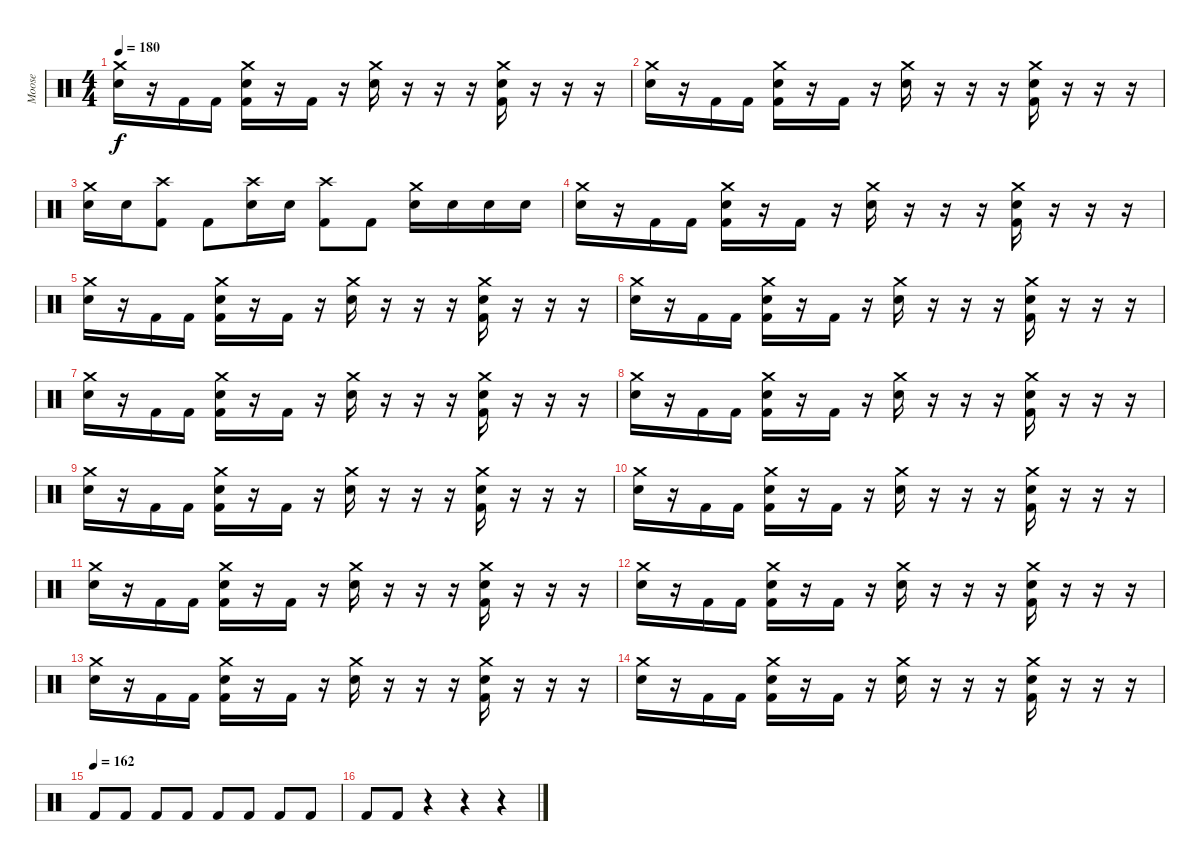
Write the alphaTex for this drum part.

\track ("Moose" "Moose") {instrument percussion}
\staff {score}
\articulation defaults
\ts (4 4)
\tempo 180
\clef neutral
\ks c
("Crash medium (hit)" "Snare (hit) 2").16{dy f} r.16 "Kick (hit) 2".16 "Kick (hit) 2".16 ("Crash medium (hit)" "Snare (hit) 2" "Kick (hit) 2").16 r.16 "Kick (hit) 2".16 r.16 ("Crash medium (hit)" "Snare (hit) 2").16 r.16 r.16 r.16 ("Crash medium (hit)" "Snare (hit) 2" "Kick (hit) 2").16 r.16 r.16 r.16 |
("Crash medium (hit)" "Snare (hit) 2").16 r.16 "Kick (hit) 2".16 "Kick (hit) 2".16 ("Crash medium (hit)" "Snare (hit) 2" "Kick (hit) 2").16 r.16 "Kick (hit) 2".16 r.16 ("Crash medium (hit)" "Snare (hit) 2").16 r.16 r.16 r.16 ("Crash medium (hit)" "Snare (hit) 2" "Kick (hit) 2").16 r.16 r.16 r.16 |
("Crash medium (hit)" "Snare (hit) 2").16 "Snare (hit) 2".16 ("Crash high (hit)" "Kick (hit) 2").8 "Kick (hit) 2".8 ("Crash high (hit)" "Snare (hit) 2").16 "Snare (hit) 2".16 ("Crash high (hit)" "Kick (hit) 2").8 "Kick (hit) 2".8 ("Crash medium (hit)" "Snare (hit) 2").16 "Snare (hit) 2".16 "Snare (hit) 2".16 "Snare (hit) 2".16 |
("Crash medium (hit)" "Snare (hit) 2").16 r.16 "Kick (hit) 2".16 "Kick (hit) 2".16 ("Crash medium (hit)" "Snare (hit) 2" "Kick (hit) 2").16 r.16 "Kick (hit) 2".16 r.16 ("Crash medium (hit)" "Snare (hit) 2").16 r.16 r.16 r.16 ("Crash medium (hit)" "Snare (hit) 2" "Kick (hit) 2").16 r.16 r.16 r.16 |
("Crash medium (hit)" "Snare (hit) 2").16 r.16 "Kick (hit) 2".16 "Kick (hit) 2".16 ("Crash medium (hit)" "Snare (hit) 2" "Kick (hit) 2").16 r.16 "Kick (hit) 2".16 r.16 ("Crash medium (hit)" "Snare (hit) 2").16 r.16 r.16 r.16 ("Crash medium (hit)" "Snare (hit) 2" "Kick (hit) 2").16 r.16 r.16 r.16 |
("Crash medium (hit)" "Snare (hit) 2").16 r.16 "Kick (hit) 2".16 "Kick (hit) 2".16 ("Crash medium (hit)" "Snare (hit) 2" "Kick (hit) 2").16 r.16 "Kick (hit) 2".16 r.16 ("Crash medium (hit)" "Snare (hit) 2").16 r.16 r.16 r.16 ("Crash medium (hit)" "Snare (hit) 2" "Kick (hit) 2").16 r.16 r.16 r.16 |
("Crash medium (hit)" "Snare (hit) 2").16 r.16 "Kick (hit) 2".16 "Kick (hit) 2".16 ("Crash medium (hit)" "Snare (hit) 2" "Kick (hit) 2").16 r.16 "Kick (hit) 2".16 r.16 ("Crash medium (hit)" "Snare (hit) 2").16 r.16 r.16 r.16 ("Crash medium (hit)" "Snare (hit) 2" "Kick (hit) 2").16 r.16 r.16 r.16 |
("Crash medium (hit)" "Snare (hit) 2").16 r.16 "Kick (hit) 2".16 "Kick (hit) 2".16 ("Crash medium (hit)" "Snare (hit) 2" "Kick (hit) 2").16 r.16 "Kick (hit) 2".16 r.16 ("Crash medium (hit)" "Snare (hit) 2").16 r.16 r.16 r.16 ("Crash medium (hit)" "Snare (hit) 2" "Kick (hit) 2").16 r.16 r.16 r.16 |
("Crash medium (hit)" "Snare (hit) 2").16 r.16 "Kick (hit) 2".16 "Kick (hit) 2".16 ("Crash medium (hit)" "Snare (hit) 2" "Kick (hit) 2").16 r.16 "Kick (hit) 2".16 r.16 ("Crash medium (hit)" "Snare (hit) 2").16 r.16 r.16 r.16 ("Crash medium (hit)" "Snare (hit) 2" "Kick (hit) 2").16 r.16 r.16 r.16 |
("Crash medium (hit)" "Snare (hit) 2").16 r.16 "Kick (hit) 2".16 "Kick (hit) 2".16 ("Crash medium (hit)" "Snare (hit) 2" "Kick (hit) 2").16 r.16 "Kick (hit) 2".16 r.16 ("Crash medium (hit)" "Snare (hit) 2").16 r.16 r.16 r.16 ("Crash medium (hit)" "Snare (hit) 2" "Kick (hit) 2").16 r.16 r.16 r.16 |
("Crash medium (hit)" "Snare (hit) 2").16 r.16 "Kick (hit) 2".16 "Kick (hit) 2".16 ("Crash medium (hit)" "Snare (hit) 2" "Kick (hit) 2").16 r.16 "Kick (hit) 2".16 r.16 ("Crash medium (hit)" "Snare (hit) 2").16 r.16 r.16 r.16 ("Crash medium (hit)" "Snare (hit) 2" "Kick (hit) 2").16 r.16 r.16 r.16 |
("Crash medium (hit)" "Snare (hit) 2").16 r.16 "Kick (hit) 2".16 "Kick (hit) 2".16 ("Crash medium (hit)" "Snare (hit) 2" "Kick (hit) 2").16 r.16 "Kick (hit) 2".16 r.16 ("Crash medium (hit)" "Snare (hit) 2").16 r.16 r.16 r.16 ("Crash medium (hit)" "Snare (hit) 2" "Kick (hit) 2").16 r.16 r.16 r.16 |
("Crash medium (hit)" "Snare (hit) 2").16 r.16 "Kick (hit) 2".16 "Kick (hit) 2".16 ("Crash medium (hit)" "Snare (hit) 2" "Kick (hit) 2").16 r.16 "Kick (hit) 2".16 r.16 ("Crash medium (hit)" "Snare (hit) 2").16 r.16 r.16 r.16 ("Crash medium (hit)" "Snare (hit) 2" "Kick (hit) 2").16 r.16 r.16 r.16 |
("Crash medium (hit)" "Snare (hit) 2").16 r.16 "Kick (hit) 2".16 "Kick (hit) 2".16 ("Crash medium (hit)" "Snare (hit) 2" "Kick (hit) 2").16 r.16 "Kick (hit) 2".16 r.16 ("Crash medium (hit)" "Snare (hit) 2").16 r.16 r.16 r.16 ("Crash medium (hit)" "Snare (hit) 2" "Kick (hit) 2").16 r.16 r.16 r.16 |
\tempo (162)
"Kick (hit) 2".8 "Kick (hit) 2".8 "Kick (hit) 2".8 "Kick (hit) 2".8 "Kick (hit) 2".8 "Kick (hit) 2".8 "Kick (hit) 2".8 "Kick (hit) 2".8 |
"Kick (hit) 2".8 "Kick (hit) 2".8 r.4 r.4 r.4
